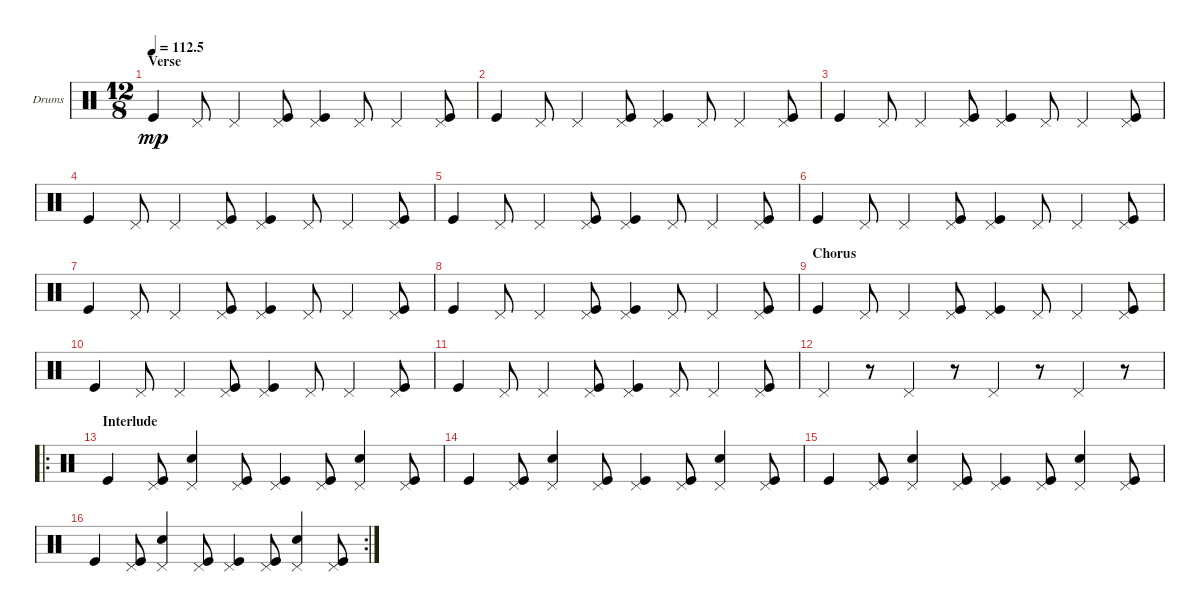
\defaultSystemsLayout 4
\bracketExtendMode groupsimilarinstruments
\firstSystemTrackNameOrientation horizontal
\otherSystemsTrackNameOrientation horizontal
\track ("Drumkit" "Drums") {instrument percussion}
\staff {score}
\articulation defaults
\ts (12 8)
\section ("" "Verse")
\tempo
112.5
\accidentals auto
\clef neutral
\ottava regular
\simile none
\ks c "Kick (hit)".4{dy mp} "Pedal Hi-Hat (hit)".8 "Pedal Hi-Hat (hit)".4
("Pedal Hi-Hat (hit)" "Kick (hit)").8 ("Pedal Hi-Hat (hit)" "Kick (hit)").4 "Pedal Hi-Hat (hit)".8 "Pedal Hi-Hat (hit)".4 ("Pedal Hi-Hat (hit)" "Kick (hit)").8 |
"Kick (hit)".4 "Pedal Hi-Hat (hit)".8 "Pedal Hi-Hat (hit)".4 ("Pedal Hi-Hat (hit)" "Kick (hit)").8 ("Pedal Hi-Hat (hit)" "Kick (hit)").4 "Pedal Hi-Hat (hit)".8 "Pedal Hi-Hat (hit)".4 ("Pedal Hi-Hat (hit)" "Kick (hit)").8 |
"Kick (hit)".4 "Pedal Hi-Hat (hit)".8 "Pedal Hi-Hat (hit)".4 ("Pedal Hi-Hat (hit)" "Kick (hit)").8 ("Pedal Hi-Hat (hit)" "Kick (hit)").4 "Pedal Hi-Hat (hit)".8 "Pedal Hi-Hat (hit)".4 ("Pedal Hi-Hat (hit)" "Kick (hit)").8 |
"Kick (hit)".4 "Pedal Hi-Hat (hit)".8 "Pedal Hi-Hat (hit)".4 ("Pedal Hi-Hat (hit)" "Kick (hit)").8 ("Pedal Hi-Hat (hit)" "Kick (hit)").4 "Pedal Hi-Hat (hit)".8 "Pedal Hi-Hat (hit)".4 ("Pedal Hi-Hat (hit)" "Kick (hit)").8 |
"Kick (hit)".4 "Pedal Hi-Hat (hit)".8 "Pedal Hi-Hat (hit)".4 ("Pedal Hi-Hat (hit)" "Kick (hit)").8 ("Pedal Hi-Hat (hit)" "Kick (hit)").4 "Pedal Hi-Hat (hit)".8 "Pedal Hi-Hat (hit)".4 ("Pedal Hi-Hat (hit)" "Kick (hit)").8 |
"Kick (hit)".4 "Pedal Hi-Hat (hit)".8 "Pedal Hi-Hat (hit)".4 ("Pedal Hi-Hat (hit)" "Kick (hit)").8 ("Pedal Hi-Hat (hit)" "Kick (hit)").4 "Pedal Hi-Hat (hit)".8 "Pedal Hi-Hat (hit)".4 ("Pedal Hi-Hat (hit)" "Kick (hit)").8 |
"Kick (hit)".4 "Pedal Hi-Hat (hit)".8 "Pedal Hi-Hat (hit)".4 ("Pedal Hi-Hat (hit)" "Kick (hit)").8 ("Pedal Hi-Hat (hit)" "Kick (hit)").4 "Pedal Hi-Hat (hit)".8 "Pedal Hi-Hat (hit)".4 ("Pedal Hi-Hat (hit)" "Kick (hit)").8 |
"Kick (hit)".4 "Pedal Hi-Hat (hit)".8 "Pedal Hi-Hat (hit)".4 ("Pedal Hi-Hat (hit)" "Kick (hit)").8 ("Pedal Hi-Hat (hit)" "Kick (hit)").4 "Pedal Hi-Hat (hit)".8 "Pedal Hi-Hat (hit)".4 ("Pedal Hi-Hat (hit)" "Kick (hit)").8 |
\section ("" "Chorus")
"Kick (hit)".4 "Pedal Hi-Hat (hit)".8 "Pedal Hi-Hat (hit)".4 ("Pedal Hi-Hat (hit)" "Kick (hit)").8 ("Pedal Hi-Hat (hit)" "Kick (hit)").4 "Pedal Hi-Hat (hit)".8 "Pedal Hi-Hat (hit)".4 ("Pedal Hi-Hat (hit)" "Kick (hit)").8 |
"Kick (hit)".4 "Pedal Hi-Hat (hit)".8 "Pedal Hi-Hat (hit)".4 ("Pedal Hi-Hat (hit)" "Kick (hit)").8 ("Pedal Hi-Hat (hit)" "Kick (hit)").4 "Pedal Hi-Hat (hit)".8 "Pedal Hi-Hat (hit)".4 ("Pedal Hi-Hat (hit)" "Kick (hit)").8 |
"Kick (hit)".4 "Pedal Hi-Hat (hit)".8 "Pedal Hi-Hat (hit)".4 ("Pedal Hi-Hat (hit)" "Kick (hit)").8 ("Pedal Hi-Hat (hit)" "Kick (hit)").4 "Pedal Hi-Hat (hit)".8 "Pedal Hi-Hat (hit)".4 ("Pedal Hi-Hat (hit)" "Kick (hit)").8 |
"Pedal Hi-Hat (hit)".4 r.8 "Pedal Hi-Hat (hit)".4 r.8 "Pedal Hi-Hat (hit)".4 r.8 "Pedal Hi-Hat (hit)".4 r.8 |
\ro
\section ("" "Interlude")
\scale
0.365591 "Kick (hit)".4 ("Pedal Hi-Hat (hit)" "Kick (hit)").8 ("Pedal Hi-Hat (hit)" "Snare (hit) 2").4 ("Pedal Hi-Hat (hit)" "Kick (hit)").8 ("Pedal Hi-Hat (hit)" "Kick (hit)").4 ("Pedal Hi-Hat (hit)" "Kick (hit)").8 ("Pedal Hi-Hat (hit)" "Snare (hit) 2").4 ("Pedal Hi-Hat (hit)" "Kick (hit)").8 |
\scale
0.301075 "Kick (hit)".4 ("Pedal Hi-Hat (hit)" "Kick (hit)").8 ("Pedal Hi-Hat (hit)" "Snare (hit) 2").4 ("Pedal Hi-Hat (hit)" "Kick (hit)").8 ("Pedal Hi-Hat (hit)" "Kick (hit)").4 ("Pedal Hi-Hat (hit)" "Kick (hit)").8 ("Pedal Hi-Hat (hit)" "Snare (hit) 2").4 ("Pedal Hi-Hat (hit)" "Kick (hit)").8 |
"Kick (hit)".4 ("Pedal Hi-Hat (hit)" "Kick (hit)").8 ("Pedal Hi-Hat (hit)" "Snare (hit) 2").4 ("Pedal Hi-Hat (hit)" "Kick (hit)").8 ("Pedal Hi-Hat (hit)" "Kick (hit)").4 ("Pedal Hi-Hat (hit)" "Kick (hit)").8 ("Pedal Hi-Hat (hit)" "Snare (hit) 2").4 ("Pedal Hi-Hat (hit)" "Kick (hit)").8 |
\rc 2 "Kick (hit)".4
("Pedal Hi-Hat (hit)" "Kick (hit)").8 ("Pedal Hi-Hat (hit)" "Snare (hit) 2").4 ("Pedal Hi-Hat (hit)" "Kick (hit)").8 ("Pedal Hi-Hat (hit)" "Kick (hit)").4 ("Pedal Hi-Hat (hit)" "Kick (hit)").8 ("Pedal Hi-Hat (hit)" "Snare (hit) 2").4 ("Pedal Hi-Hat (hit)" "Kick (hit)").8
